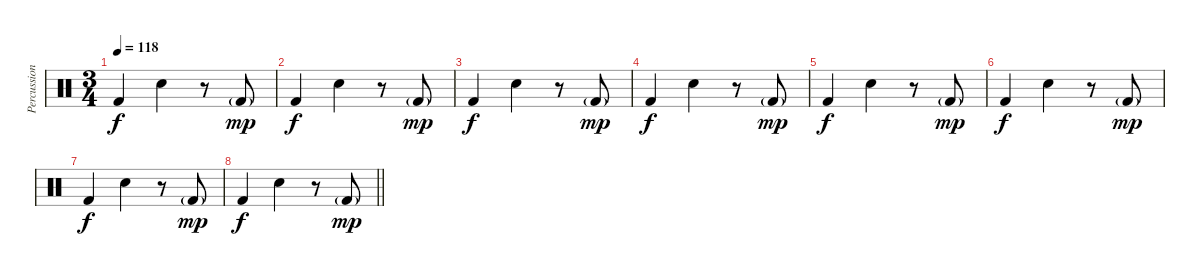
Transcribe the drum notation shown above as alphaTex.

\track ("Percussion" "Percussion") {instrument percussion}
\staff {score}
\articulation defaults
\ts (3 4)
\tempo 118
\clef neutral
\ks c "Kick (hit) 2".4{dy f} "Snare (hit) 2".4
r.8 "Kick (hit) 2"{g}.8{dy mp} |
"Kick (hit) 2".4{dy f} "Snare (hit) 2".4 r.8 "Kick (hit) 2"{g}.8{dy mp} |
"Kick (hit) 2".4{dy f} "Snare (hit) 2".4 r.8 "Kick (hit) 2"{g}.8{dy mp} |
"Kick (hit) 2".4{dy f} "Snare (hit) 2".4 r.8 "Kick (hit) 2"{g}.8{dy mp} |
"Kick (hit) 2".4{dy f} "Snare (hit) 2".4 r.8 "Kick (hit) 2"{g}.8{dy mp} |
"Kick (hit) 2".4{dy f} "Snare (hit) 2".4 r.8 "Kick (hit) 2"{g}.8{dy mp} |
"Kick (hit) 2".4{dy f} "Snare (hit) 2".4 r.8 "Kick (hit) 2"{g}.8{dy mp} |
\barLineRight lightlight "Kick (hit) 2".4{dy f} "Snare (hit) 2".4
r.8 "Kick (hit) 2"{g}.8{dy mp}
